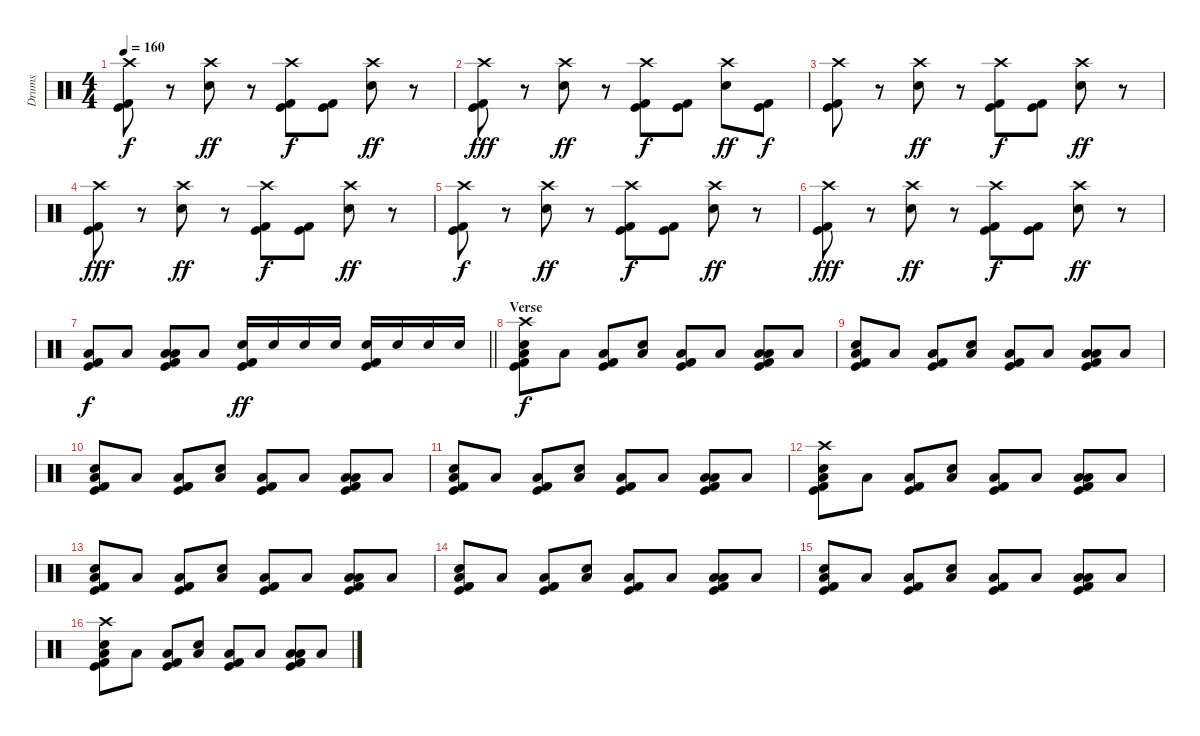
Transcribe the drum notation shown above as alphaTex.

\track ("Drums" "Drums") {instrument percussion}
\staff {score}
\articulation defaults
\ts (4 4)
\tempo 160
\clef neutral
\ks c
("Crash high (hit)" "Kick (hit)" "Kick (hit) 2").8{dy f} r.8 ("Crash high (hit)" "Snare (hit) 2").8{dy ff} r.8 ("Crash high (hit)" "Kick (hit)" "Kick (hit) 2").8{dy f} ("Kick (hit)" "Kick (hit) 2").8 ("Crash high (hit)" "Snare (hit) 2").8{dy ff} r.8 |
("Crash high (hit)" "Kick (hit)" "Kick (hit) 2").8{dy fff} r.8 ("Crash high (hit)" "Snare (hit) 2").8{dy ff} r.8 ("Crash high (hit)" "Kick (hit)" "Kick (hit) 2").8{dy f} ("Kick (hit)" "Kick (hit) 2").8 ("Crash high (hit)" "Snare (hit) 2").8{dy ff} ("Kick (hit)" "Kick (hit) 2").8{dy f} |
("Crash high (hit)" "Kick (hit)" "Kick (hit) 2").8 r.8 ("Crash high (hit)" "Snare (hit) 2").8{dy ff} r.8 ("Crash high (hit)" "Kick (hit)" "Kick (hit) 2").8{dy f} ("Kick (hit)" "Kick (hit) 2").8 ("Crash high (hit)" "Snare (hit) 2").8{dy ff} r.8 |
("Crash high (hit)" "Kick (hit)" "Kick (hit) 2").8{dy fff} r.8 ("Crash high (hit)" "Snare (hit) 2").8{dy ff} r.8 ("Crash high (hit)" "Kick (hit)" "Kick (hit) 2").8{dy f} ("Kick (hit)" "Kick (hit) 2").8 ("Crash high (hit)" "Snare (hit) 2").8{dy ff} r.8 |
("Crash high (hit)" "Kick (hit)" "Kick (hit) 2").8{dy f} r.8 ("Crash high (hit)" "Snare (hit) 2").8{dy ff} r.8 ("Crash high (hit)" "Kick (hit)" "Kick (hit) 2").8{dy f} ("Kick (hit)" "Kick (hit) 2").8 ("Crash high (hit)" "Snare (hit) 2").8{dy ff} r.8 |
("Crash high (hit)" "Kick (hit)" "Kick (hit) 2").8{dy fff} r.8 ("Crash high (hit)" "Snare (hit) 2").8{dy ff} r.8 ("Crash high (hit)" "Kick (hit)" "Kick (hit) 2").8{dy f} ("Kick (hit)" "Kick (hit) 2").8 ("Crash high (hit)" "Snare (hit) 2").8{dy ff} r.8 |
\barLineRight lightlight
("Low Floor Tom (hit)" "Kick (hit)" "Kick (hit) 2").8{dy f} "Low Floor Tom (hit)".8 ("Low Tom (hit)" "Low Floor Tom (hit)" "Kick (hit)" "Kick (hit) 2").8 "Low Floor Tom (hit)".8 ("Snare (hit) 2" "Kick (hit)" "Kick (hit) 2").16{dy ff} "Snare (hit) 2".16 "Snare (hit) 2".16 "Snare (hit) 2".16 ("Snare (hit) 2" "Kick (hit)" "Kick (hit) 2").16 "Snare (hit) 2".16 "Snare (hit) 2".16 "Snare (hit) 2".16 |
\section ("" "Verse")
("Crash high (hit)" "Snare (hit) 2" "Low Floor Tom (hit)" "Kick (hit)" "Kick (hit) 2").8{dy f} "Low Floor Tom (hit)".8 ("Low Floor Tom (hit)" "Kick (hit)" "Kick (hit) 2").8 ("Snare (hit) 2" "Low Floor Tom (hit)").8 ("Low Floor Tom (hit)" "Kick (hit)" "Kick (hit) 2").8 "Low Floor Tom (hit)".8 ("Low Tom (hit)" "Low Floor Tom (hit)" "Kick (hit)" "Kick (hit) 2").8 "Low Floor Tom (hit)".8 |
("Snare (hit) 2" "Low Floor Tom (hit)" "Kick (hit)" "Kick (hit) 2").8 "Low Floor Tom (hit)".8 ("Low Floor Tom (hit)" "Kick (hit)" "Kick (hit) 2").8 ("Snare (hit) 2" "Low Floor Tom (hit)").8 ("Low Floor Tom (hit)" "Kick (hit)" "Kick (hit) 2").8 "Low Floor Tom (hit)".8 ("Low Tom (hit)" "Low Floor Tom (hit)" "Kick (hit)" "Kick (hit) 2").8 "Low Floor Tom (hit)".8 |
("Snare (hit) 2" "Low Floor Tom (hit)" "Kick (hit)" "Kick (hit) 2").8 "Low Floor Tom (hit)".8 ("Low Floor Tom (hit)" "Kick (hit)" "Kick (hit) 2").8 ("Snare (hit) 2" "Low Floor Tom (hit)").8 ("Low Floor Tom (hit)" "Kick (hit)" "Kick (hit) 2").8 "Low Floor Tom (hit)".8 ("Low Tom (hit)" "Low Floor Tom (hit)" "Kick (hit)" "Kick (hit) 2").8 "Low Floor Tom (hit)".8 |
("Snare (hit) 2" "Low Floor Tom (hit)" "Kick (hit)" "Kick (hit) 2").8 "Low Floor Tom (hit)".8 ("Low Floor Tom (hit)" "Kick (hit)" "Kick (hit) 2").8 ("Snare (hit) 2" "Low Floor Tom (hit)").8 ("Low Floor Tom (hit)" "Kick (hit)" "Kick (hit) 2").8 "Low Floor Tom (hit)".8 ("Low Tom (hit)" "Low Floor Tom (hit)" "Kick (hit)" "Kick (hit) 2").8 "Low Floor Tom (hit)".8 |
("Crash high (hit)" "Snare (hit) 2" "Low Floor Tom (hit)" "Kick (hit)" "Kick (hit) 2").8 "Low Floor Tom (hit)".8 ("Low Floor Tom (hit)" "Kick (hit)" "Kick (hit) 2").8 ("Snare (hit) 2" "Low Floor Tom (hit)").8 ("Low Floor Tom (hit)" "Kick (hit)" "Kick (hit) 2").8 "Low Floor Tom (hit)".8 ("Low Tom (hit)" "Low Floor Tom (hit)" "Kick (hit)" "Kick (hit) 2").8 "Low Floor Tom (hit)".8 |
("Snare (hit) 2" "Low Floor Tom (hit)" "Kick (hit)" "Kick (hit) 2").8 "Low Floor Tom (hit)".8 ("Low Floor Tom (hit)" "Kick (hit)" "Kick (hit) 2").8 ("Snare (hit) 2" "Low Floor Tom (hit)").8 ("Low Floor Tom (hit)" "Kick (hit)" "Kick (hit) 2").8 "Low Floor Tom (hit)".8 ("Low Tom (hit)" "Low Floor Tom (hit)" "Kick (hit)" "Kick (hit) 2").8 "Low Floor Tom (hit)".8 |
("Snare (hit) 2" "Low Floor Tom (hit)" "Kick (hit)" "Kick (hit) 2").8 "Low Floor Tom (hit)".8 ("Low Floor Tom (hit)" "Kick (hit)" "Kick (hit) 2").8 ("Snare (hit) 2" "Low Floor Tom (hit)").8 ("Low Floor Tom (hit)" "Kick (hit)" "Kick (hit) 2").8 "Low Floor Tom (hit)".8 ("Low Tom (hit)" "Low Floor Tom (hit)" "Kick (hit)" "Kick (hit) 2").8 "Low Floor Tom (hit)".8 |
("Snare (hit) 2" "Low Floor Tom (hit)" "Kick (hit)" "Kick (hit) 2").8 "Low Floor Tom (hit)".8 ("Low Floor Tom (hit)" "Kick (hit)" "Kick (hit) 2").8 ("Snare (hit) 2" "Low Floor Tom (hit)").8 ("Low Floor Tom (hit)" "Kick (hit)" "Kick (hit) 2").8 "Low Floor Tom (hit)".8 ("Low Tom (hit)" "Low Floor Tom (hit)" "Kick (hit)" "Kick (hit) 2").8 "Low Floor Tom (hit)".8 |
("Crash high (hit)" "Snare (hit) 2" "Low Floor Tom (hit)" "Kick (hit)" "Kick (hit) 2").8 "Low Floor Tom (hit)".8 ("Low Floor Tom (hit)" "Kick (hit)" "Kick (hit) 2").8 ("Snare (hit) 2" "Low Floor Tom (hit)").8 ("Low Floor Tom (hit)" "Kick (hit)" "Kick (hit) 2").8 "Low Floor Tom (hit)".8 ("Low Tom (hit)" "Low Floor Tom (hit)" "Kick (hit)" "Kick (hit) 2").8 "Low Floor Tom (hit)".8
